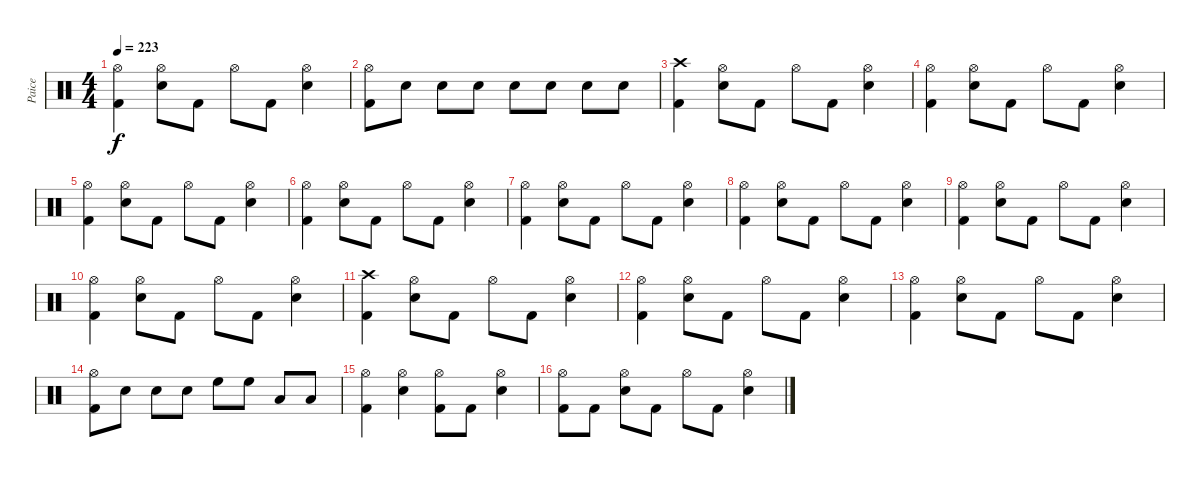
\track ("Paice" "Paice") {instrument percussion}
\staff {score}
\articulation defaults
\ts (4 4)
\tempo 223
\clef neutral
\ks c
("Hi-Hat (open)" "Kick (hit) 2").4{dy f} ("Hi-Hat (open)" "Electric Snare (hit)").8 "Kick (hit) 2".8 "Hi-Hat (open)".8 "Kick (hit) 2".8 ("Hi-Hat (open)" "Electric Snare (hit)").4 |
("Hi-Hat (open)" "Kick (hit) 2").8 "Electric Snare (hit)".8 "Electric Snare (hit)".8 "Electric Snare (hit)".8 "Electric Snare (hit)".8 "Electric Snare (hit)".8 "Electric Snare (hit)".8 "Electric Snare (hit)".8 |
("Crash high (hit)" "Kick (hit) 2").4 ("Hi-Hat (open)" "Electric Snare (hit)").8 "Kick (hit) 2".8 "Hi-Hat (open)".8 "Kick (hit) 2".8 ("Hi-Hat (open)" "Electric Snare (hit)").4 |
("Hi-Hat (open)" "Kick (hit) 2").4 ("Hi-Hat (open)" "Electric Snare (hit)").8 "Kick (hit) 2".8 "Hi-Hat (open)".8 "Kick (hit) 2".8 ("Hi-Hat (open)" "Electric Snare (hit)").4 |
("Hi-Hat (open)" "Kick (hit) 2").4 ("Hi-Hat (open)" "Electric Snare (hit)").8 "Kick (hit) 2".8 "Hi-Hat (open)".8 "Kick (hit) 2".8 ("Hi-Hat (open)" "Electric Snare (hit)").4 |
("Hi-Hat (open)" "Kick (hit) 2").4 ("Hi-Hat (open)" "Electric Snare (hit)").8 "Kick (hit) 2".8 "Hi-Hat (open)".8 "Kick (hit) 2".8 ("Hi-Hat (open)" "Electric Snare (hit)").4 |
("Hi-Hat (open)" "Kick (hit) 2").4 ("Hi-Hat (open)" "Electric Snare (hit)").8 "Kick (hit) 2".8 "Hi-Hat (open)".8 "Kick (hit) 2".8 ("Hi-Hat (open)" "Electric Snare (hit)").4 |
("Hi-Hat (open)" "Kick (hit) 2").4 ("Hi-Hat (open)" "Electric Snare (hit)").8 "Kick (hit) 2".8 "Hi-Hat (open)".8 "Kick (hit) 2".8 ("Hi-Hat (open)" "Electric Snare (hit)").4 |
("Hi-Hat (open)" "Kick (hit) 2").4 ("Hi-Hat (open)" "Electric Snare (hit)").8 "Kick (hit) 2".8 "Hi-Hat (open)".8 "Kick (hit) 2".8 ("Hi-Hat (open)" "Electric Snare (hit)").4 |
("Hi-Hat (open)" "Kick (hit) 2").4 ("Hi-Hat (open)" "Electric Snare (hit)").8 "Kick (hit) 2".8 "Hi-Hat (open)".8 "Kick (hit) 2".8 ("Hi-Hat (open)" "Electric Snare (hit)").4 |
("Crash high (hit)" "Kick (hit) 2").4 ("Hi-Hat (open)" "Electric Snare (hit)").8 "Kick (hit) 2".8 "Hi-Hat (open)".8 "Kick (hit) 2".8 ("Hi-Hat (open)" "Electric Snare (hit)").4 |
("Hi-Hat (open)" "Kick (hit) 2").4 ("Hi-Hat (open)" "Electric Snare (hit)").8 "Kick (hit) 2".8 "Hi-Hat (open)".8 "Kick (hit) 2".8 ("Hi-Hat (open)" "Electric Snare (hit)").4 |
("Hi-Hat (open)" "Kick (hit) 2").4 ("Hi-Hat (open)" "Electric Snare (hit)").8 "Kick (hit) 2".8 "Hi-Hat (open)".8 "Kick (hit) 2".8 ("Hi-Hat (open)" "Electric Snare (hit)").4 |
("Hi-Hat (open)" "Kick (hit) 2").8 "Electric Snare (hit)".8 "Electric Snare (hit)".8 "Electric Snare (hit)".8 "High Floor Tom (hit)".8 "High Floor Tom (hit)".8 "Low Tom (hit)".8 "Low Tom (hit)".8 |
("Hi-Hat (open)" "Kick (hit) 2").4 ("Hi-Hat (open)" "Electric Snare (hit)").4 ("Hi-Hat (open)" "Kick (hit) 2").8 "Kick (hit) 2".8 ("Hi-Hat (open)" "Electric Snare (hit)").4 |
("Hi-Hat (open)" "Kick (hit) 2").8 "Kick (hit) 2".8 ("Hi-Hat (open)" "Electric Snare (hit)").8 "Kick (hit) 2".8 "Hi-Hat (open)".8 "Kick (hit) 2".8 ("Hi-Hat (open)" "Electric Snare (hit)").4
